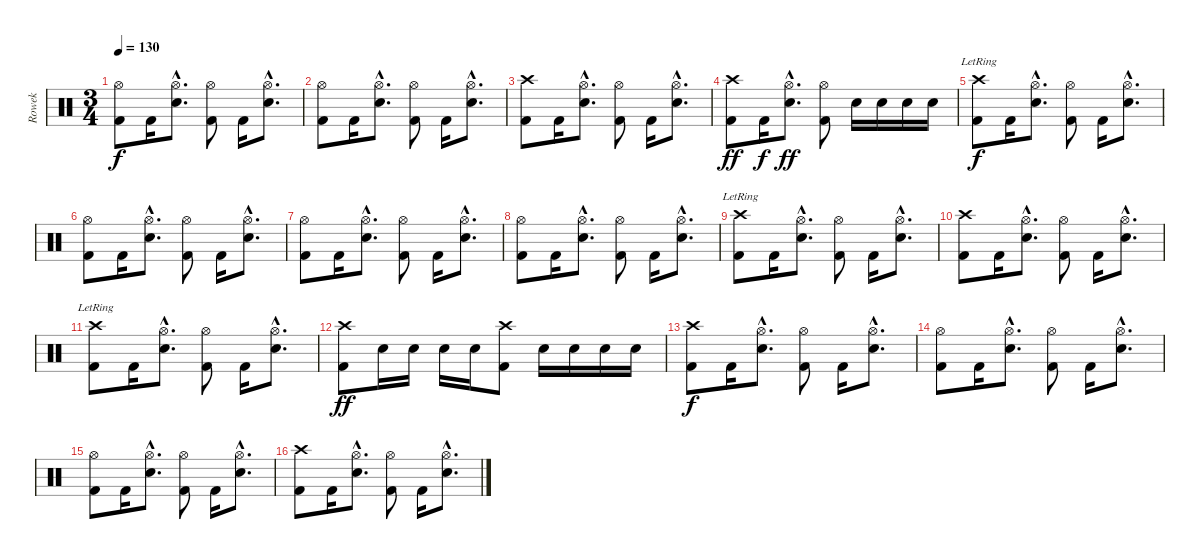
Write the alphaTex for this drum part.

\track ("Rowek" "Rowek") {instrument percussion}
\staff {score}
\articulation defaults
\ts (3 4)
\tempo 130
\clef neutral
\ks c
("Hi-Hat (open)" "Kick (hit) 2").8{dy f} "Kick (hit) 2".16 ("Hi-Hat (open)"{hac} "Snare (hit) 2"{hac}).8{d} ("Hi-Hat (open)" "Kick (hit) 2").8 "Kick (hit) 2".16 ("Hi-Hat (open)"{hac} "Snare (hit) 2"{hac}).8{d} |
("Hi-Hat (open)" "Kick (hit) 2").8 "Kick (hit) 2".16 ("Hi-Hat (open)"{hac} "Snare (hit) 2"{hac}).8{d} ("Hi-Hat (open)" "Kick (hit) 2").8 "Kick (hit) 2".16 ("Hi-Hat (open)"{hac} "Snare (hit) 2"{hac}).8{d} |
("Crash high (hit)" "Kick (hit) 2").8 "Kick (hit) 2".16 ("Hi-Hat (open)"{hac} "Snare (hit) 2"{hac}).8{d} ("Hi-Hat (open)" "Kick (hit) 2").8 "Kick (hit) 2".16 ("Hi-Hat (open)"{hac} "Snare (hit) 2"{hac}).8{d} |
("Crash high (hit)" "Kick (hit) 2").8{dy ff} "Kick (hit) 2".16{dy f} ("Hi-Hat (open)"{hac} "Snare (hit) 2"{hac}).8{d dy ff} ("Hi-Hat (open)" "Kick (hit) 2").8 "Electric Snare (hit)".16 "Electric Snare (hit)".16 "Electric Snare (hit)".16 "Electric Snare (hit)".16 |
("Crash high (hit)"{lr} "Kick (hit) 2").8{dy f} "Kick (hit) 2".16 ("Hi-Hat (open)"{hac} "Snare (hit) 2"{hac}).8{d} ("Hi-Hat (open)" "Kick (hit) 2").8 "Kick (hit) 2".16 ("Hi-Hat (open)"{hac} "Snare (hit) 2"{hac}).8{d} |
("Hi-Hat (open)" "Kick (hit) 2").8 "Kick (hit) 2".16 ("Hi-Hat (open)"{hac} "Snare (hit) 2"{hac}).8{d} ("Hi-Hat (open)" "Kick (hit) 2").8 "Kick (hit) 2".16 ("Hi-Hat (open)"{hac} "Snare (hit) 2"{hac}).8{d} |
("Hi-Hat (open)" "Kick (hit) 2").8 "Kick (hit) 2".16 ("Hi-Hat (open)"{hac} "Snare (hit) 2"{hac}).8{d} ("Hi-Hat (open)" "Kick (hit) 2").8 "Kick (hit) 2".16 ("Hi-Hat (open)"{hac} "Snare (hit) 2"{hac}).8{d} |
("Hi-Hat (open)" "Kick (hit) 2").8 "Kick (hit) 2".16 ("Hi-Hat (open)"{hac} "Snare (hit) 2"{hac}).8{d} ("Hi-Hat (open)" "Kick (hit) 2").8 "Kick (hit) 2".16 ("Hi-Hat (open)"{hac} "Snare (hit) 2"{hac}).8{d} |
("Crash high (hit)"{lr} "Kick (hit) 2").8 "Kick (hit) 2".16 ("Hi-Hat (open)"{hac} "Snare (hit) 2"{hac}).8{d} ("Hi-Hat (open)" "Kick (hit) 2").8 "Kick (hit) 2".16 ("Hi-Hat (open)"{hac} "Snare (hit) 2"{hac}).8{d} |
("Crash high (hit)" "Kick (hit) 2").8 "Kick (hit) 2".16 ("Hi-Hat (open)"{hac} "Snare (hit) 2"{hac}).8{d} ("Hi-Hat (open)" "Kick (hit) 2").8 "Kick (hit) 2".16 ("Hi-Hat (open)"{hac} "Snare (hit) 2"{hac}).8{d} |
("Crash high (hit)"{lr} "Kick (hit) 2").8 "Kick (hit) 2".16 ("Hi-Hat (open)"{hac} "Snare (hit) 2"{hac}).8{d} ("Hi-Hat (open)" "Kick (hit) 2").8 "Kick (hit) 2".16 ("Hi-Hat (open)"{hac} "Snare (hit) 2"{hac}).8{d} |
("Kick (hit) 2" "Crash high (hit)").8{dy ff} "Electric Snare (hit)".16 "Electric Snare (hit)".16 "Electric Snare (hit)".16 "Electric Snare (hit)".16 ("Kick (hit) 2" "Crash high (hit)").8 "Electric Snare (hit)".16 "Electric Snare (hit)".16 "Electric Snare (hit)".16 "Electric Snare (hit)".16 |
("Crash high (hit)" "Kick (hit) 2").8{dy f} "Kick (hit) 2".16 ("Hi-Hat (open)"{hac} "Snare (hit) 2"{hac}).8{d} ("Hi-Hat (open)" "Kick (hit) 2").8 "Kick (hit) 2".16 ("Hi-Hat (open)"{hac} "Snare (hit) 2"{hac}).8{d} |
("Hi-Hat (open)" "Kick (hit) 2").8 "Kick (hit) 2".16 ("Hi-Hat (open)"{hac} "Snare (hit) 2"{hac}).8{d} ("Hi-Hat (open)" "Kick (hit) 2").8 "Kick (hit) 2".16 ("Hi-Hat (open)"{hac} "Snare (hit) 2"{hac}).8{d} |
("Hi-Hat (open)" "Kick (hit) 2").8 "Kick (hit) 2".16 ("Hi-Hat (open)"{hac} "Snare (hit) 2"{hac}).8{d} ("Hi-Hat (open)" "Kick (hit) 2").8 "Kick (hit) 2".16 ("Hi-Hat (open)"{hac} "Snare (hit) 2"{hac}).8{d} |
("Crash high (hit)" "Kick (hit) 2").8 "Kick (hit) 2".16 ("Hi-Hat (open)"{hac} "Snare (hit) 2"{hac}).8{d} ("Hi-Hat (open)" "Kick (hit) 2").8 "Kick (hit) 2".16 ("Hi-Hat (open)"{hac} "Snare (hit) 2"{hac}).8{d}
